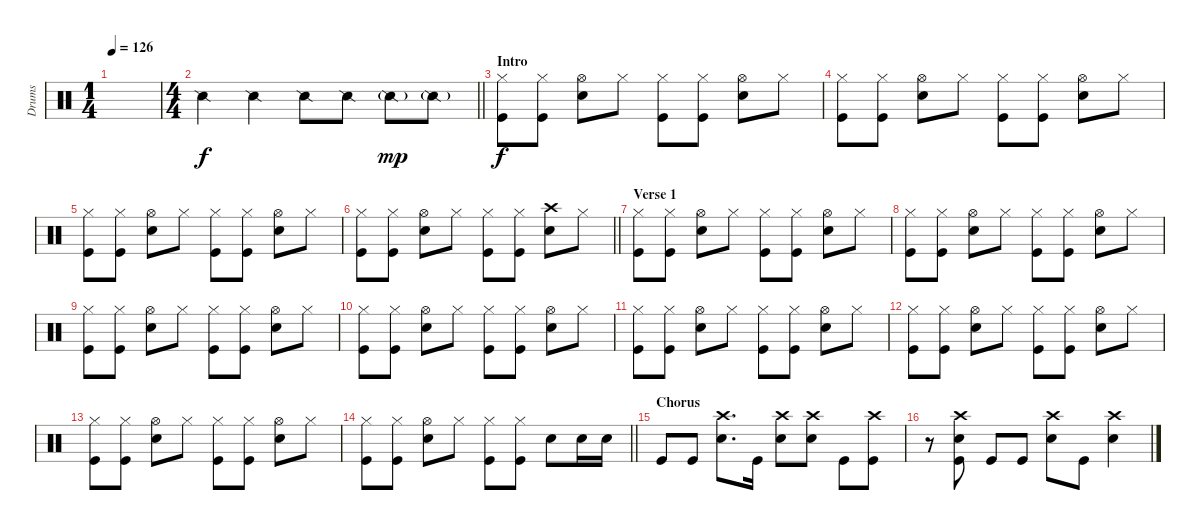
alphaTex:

\track ("Drums" "Drums") {instrument percussion}
\staff {score}
\articulation defaults
\ts (1 4)
\tempo 126
\clef neutral
\ks c
|
\ts (4 4)
\barLineRight lightlight "Snare (side stick) 2".4 "Snare (side stick) 2".4 "Snare (side stick) 2".8 "Snare (side stick) 2".8 "Snare (side stick) 2"{g}.8{dy mp} "Snare (side stick) 2"{g}.8
|
\section ("" "Intro")
("Hi-Hat (closed)" "Kick (hit)").8{dy f} ("Hi-Hat (closed)" "Kick (hit)").8 ("Hi-Hat (open)" "Snare (hit) 2").8 "Hi-Hat (closed)".8 ("Hi-Hat (closed)" "Kick (hit)").8 ("Hi-Hat (closed)" "Kick (hit)").8 ("Hi-Hat (open)" "Snare (hit) 2").8 "Hi-Hat (closed)".8 |
("Hi-Hat (closed)" "Kick (hit)").8 ("Hi-Hat (closed)" "Kick (hit)").8 ("Hi-Hat (open)" "Snare (hit) 2").8 "Hi-Hat (closed)".8 ("Hi-Hat (closed)" "Kick (hit)").8 ("Hi-Hat (closed)" "Kick (hit)").8 ("Hi-Hat (open)" "Snare (hit) 2").8 "Hi-Hat (closed)".8 |
("Hi-Hat (closed)" "Kick (hit)").8 ("Hi-Hat (closed)" "Kick (hit)").8 ("Hi-Hat (open)" "Snare (hit) 2").8 "Hi-Hat (closed)".8 ("Hi-Hat (closed)" "Kick (hit)").8 ("Hi-Hat (closed)" "Kick (hit)").8 ("Hi-Hat (open)" "Snare (hit) 2").8 "Hi-Hat (closed)".8 |
\barLineRight lightlight
("Hi-Hat (closed)" "Kick (hit)").8 ("Hi-Hat (closed)" "Kick (hit)").8 ("Hi-Hat (open)" "Snare (hit) 2").8 "Hi-Hat (closed)".8 ("Hi-Hat (closed)" "Kick (hit)").8 ("Hi-Hat (closed)" "Kick (hit)").8 ("Crash high (hit)" "Snare (hit) 2").8 "Hi-Hat (closed)".8 |
\section ("" "Verse 1")
("Hi-Hat (closed)" "Kick (hit)").8 ("Hi-Hat (closed)" "Kick (hit)").8 ("Hi-Hat (open)" "Snare (hit) 2").8 "Hi-Hat (closed)".8 ("Hi-Hat (closed)" "Kick (hit)").8 ("Hi-Hat (closed)" "Kick (hit)").8 ("Hi-Hat (open)" "Snare (hit) 2").8 "Hi-Hat (closed)".8 |
("Hi-Hat (closed)" "Kick (hit)").8 ("Hi-Hat (closed)" "Kick (hit)").8 ("Hi-Hat (open)" "Snare (hit) 2").8 "Hi-Hat (closed)".8 ("Hi-Hat (closed)" "Kick (hit)").8 ("Hi-Hat (closed)" "Kick (hit)").8 ("Hi-Hat (open)" "Snare (hit) 2").8 "Hi-Hat (closed)".8 |
("Hi-Hat (closed)" "Kick (hit)").8 ("Hi-Hat (closed)" "Kick (hit)").8 ("Hi-Hat (open)" "Snare (hit) 2").8 "Hi-Hat (closed)".8 ("Hi-Hat (closed)" "Kick (hit)").8 ("Hi-Hat (closed)" "Kick (hit)").8 ("Hi-Hat (open)" "Snare (hit) 2").8 "Hi-Hat (closed)".8 |
("Hi-Hat (closed)" "Kick (hit)").8 ("Hi-Hat (closed)" "Kick (hit)").8 ("Hi-Hat (open)" "Snare (hit) 2").8 "Hi-Hat (closed)".8 ("Hi-Hat (closed)" "Kick (hit)").8 ("Hi-Hat (closed)" "Kick (hit)").8 ("Hi-Hat (open)" "Snare (hit) 2").8 "Hi-Hat (closed)".8 |
("Hi-Hat (closed)" "Kick (hit)").8 ("Hi-Hat (closed)" "Kick (hit)").8 ("Hi-Hat (open)" "Snare (hit) 2").8 "Hi-Hat (closed)".8 ("Hi-Hat (closed)" "Kick (hit)").8 ("Hi-Hat (closed)" "Kick (hit)").8 ("Hi-Hat (open)" "Snare (hit) 2").8 "Hi-Hat (closed)".8 |
("Hi-Hat (closed)" "Kick (hit)").8 ("Hi-Hat (closed)" "Kick (hit)").8 ("Hi-Hat (open)" "Snare (hit) 2").8 "Hi-Hat (closed)".8 ("Hi-Hat (closed)" "Kick (hit)").8 ("Hi-Hat (closed)" "Kick (hit)").8 ("Hi-Hat (open)" "Snare (hit) 2").8 "Hi-Hat (closed)".8 |
("Hi-Hat (closed)" "Kick (hit)").8 ("Hi-Hat (closed)" "Kick (hit)").8 ("Hi-Hat (open)" "Snare (hit) 2").8 "Hi-Hat (closed)".8 ("Hi-Hat (closed)" "Kick (hit)").8 ("Hi-Hat (closed)" "Kick (hit)").8 ("Hi-Hat (open)" "Snare (hit) 2").8 "Hi-Hat (closed)".8 |
\barLineRight lightlight
("Hi-Hat (closed)" "Kick (hit)").8 ("Hi-Hat (closed)" "Kick (hit)").8 ("Hi-Hat (open)" "Snare (hit) 2").8 "Hi-Hat (closed)".8 ("Hi-Hat (closed)" "Kick (hit)").8 ("Hi-Hat (closed)" "Kick (hit)").8 "Snare (hit) 2".8 "Snare (hit) 2".16 "Snare (hit) 2".16 |
\section ("" "Chorus")
"Kick (hit)".8 "Kick (hit)".8 ("Crash high (hit)" "Snare (hit) 2").8{d} "Kick (hit)".16 ("Crash high (hit)" "Snare (hit) 2").8 ("Crash high (hit)" "Snare (hit) 2").8 "Kick (hit)".8 ("Crash high (hit)" "Kick (hit)").8 |
r.8 ("Crash high (hit)" "Snare (hit) 2" "Kick (hit)").8 "Kick (hit)".8 "Kick (hit)".8 ("Crash high (hit)" "Snare (hit) 2").8 "Kick (hit)".8 ("Crash high (hit)" "Snare (hit) 2").4
